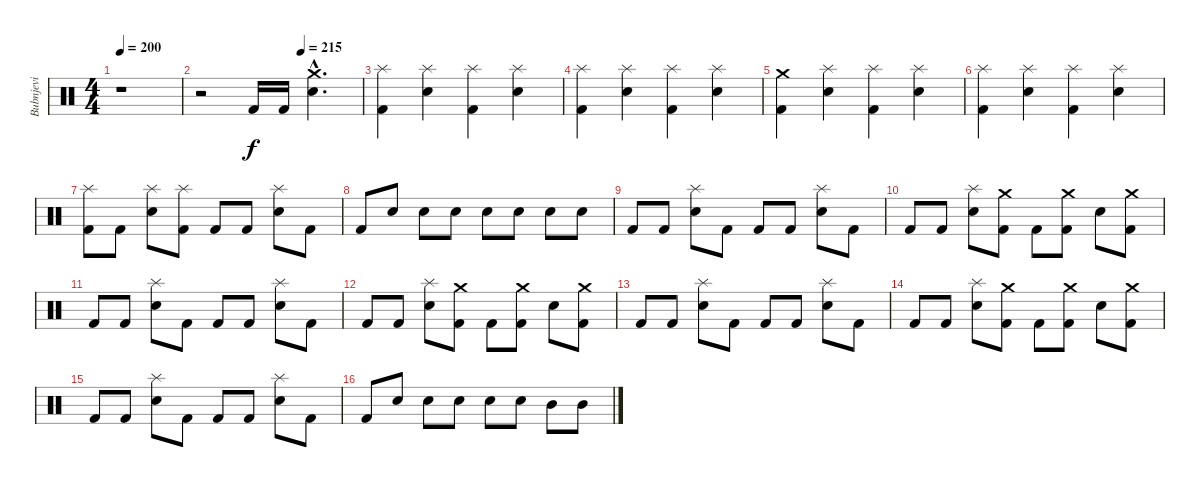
\track ("Bubnjevi" "Bubnjevi") {instrument percussion}
\staff {score}
\articulation defaults
\ts (4 4)
\tempo 200
\clef neutral
\ks c
r.1{dy f} |
\tempo (215 0.625)
r.2 "Kick (hit) 2".16 "Kick (hit) 2".16 ("Crash medium (hit)"{hac} "Electric Snare (hit)"{hac}).4{d} |
("Splash (hit)" "Kick (hit) 2").4 ("Splash (hit)" "Electric Snare (hit)").4 ("Splash (hit)" "Kick (hit) 2").4 ("Splash (hit)" "Electric Snare (hit)").4 |
("Splash (hit)" "Kick (hit) 2").4 ("Splash (hit)" "Electric Snare (hit)").4 ("Splash (hit)" "Kick (hit) 2").4 ("Splash (hit)" "Electric Snare (hit)").4 |
("Crash medium (hit)" "Kick (hit) 2").4 ("Splash (hit)" "Electric Snare (hit)").4 ("Splash (hit)" "Kick (hit) 2").4 ("Splash (hit)" "Electric Snare (hit)").4 |
("Splash (hit)" "Kick (hit) 2").4 ("Splash (hit)" "Electric Snare (hit)").4 ("Splash (hit)" "Kick (hit) 2").4 ("Splash (hit)" "Electric Snare (hit)").4 |
("Splash (hit)" "Kick (hit) 2").8 "Kick (hit) 2".8 ("Splash (hit)" "Electric Snare (hit)").8 ("Splash (hit)" "Kick (hit) 2").8 "Kick (hit) 2".8 "Kick (hit) 2".8 ("Splash (hit)" "Electric Snare (hit)").8 "Kick (hit) 2".8 |
"Kick (hit) 2".8 "Electric Snare (hit)".8 "Electric Snare (hit)".8 "Electric Snare (hit)".8 "Electric Snare (hit)".8 "Electric Snare (hit)".8 "Electric Snare (hit)".8 "Electric Snare (hit)".8 |
"Kick (hit) 2".8 "Kick (hit) 2".8 ("Splash (hit)" "Electric Snare (hit)").8 "Kick (hit) 2".8 "Kick (hit) 2".8 "Kick (hit) 2".8 ("Splash (hit)" "Electric Snare (hit)").8 "Kick (hit) 2".8 |
"Kick (hit) 2".8 "Kick (hit) 2".8 ("Splash (hit)" "Electric Snare (hit)").8 ("Crash medium (hit)" "Kick (hit) 2").8 "Kick (hit) 2".8 ("Crash medium (hit)" "Kick (hit) 2").8 "Electric Snare (hit)".8 ("Crash medium (hit)" "Kick (hit) 2").8 |
"Kick (hit) 2".8 "Kick (hit) 2".8 ("Splash (hit)" "Electric Snare (hit)").8 "Kick (hit) 2".8 "Kick (hit) 2".8 "Kick (hit) 2".8 ("Splash (hit)" "Electric Snare (hit)").8 "Kick (hit) 2".8 |
"Kick (hit) 2".8 "Kick (hit) 2".8 ("Splash (hit)" "Electric Snare (hit)").8 ("Crash medium (hit)" "Kick (hit) 2").8 "Kick (hit) 2".8 ("Crash medium (hit)" "Kick (hit) 2").8 "Electric Snare (hit)".8 ("Crash medium (hit)" "Kick (hit) 2").8 |
"Kick (hit) 2".8 "Kick (hit) 2".8 ("Splash (hit)" "Electric Snare (hit)").8 "Kick (hit) 2".8 "Kick (hit) 2".8 "Kick (hit) 2".8 ("Splash (hit)" "Electric Snare (hit)").8 "Kick (hit) 2".8 |
"Kick (hit) 2".8 "Kick (hit) 2".8 ("Splash (hit)" "Electric Snare (hit)").8 ("Crash medium (hit)" "Kick (hit) 2").8 "Kick (hit) 2".8 ("Crash medium (hit)" "Kick (hit) 2").8 "Electric Snare (hit)".8 ("Crash medium (hit)" "Kick (hit) 2").8 |
"Kick (hit) 2".8 "Kick (hit) 2".8 ("Splash (hit)" "Electric Snare (hit)").8 "Kick (hit) 2".8 "Kick (hit) 2".8 "Kick (hit) 2".8 ("Splash (hit)" "Electric Snare (hit)").8 "Kick (hit) 2".8 |
"Kick (hit) 2".8 "Electric Snare (hit)".8 "Electric Snare (hit)".8 "Electric Snare (hit)".8 "Electric Snare (hit)".8 "Electric Snare (hit)".8 "Mid Tom (hit)".8 "Mid Tom (hit)".8
